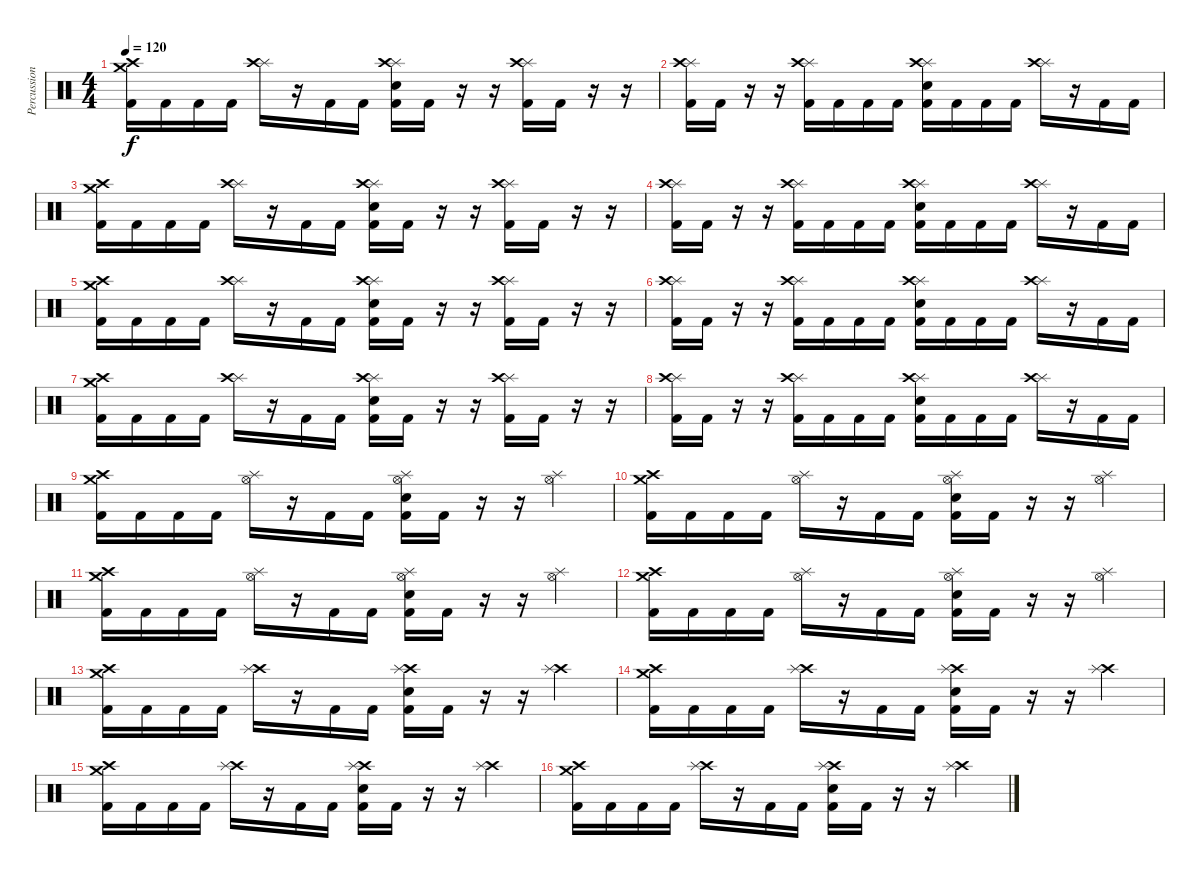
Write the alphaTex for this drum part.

\track ("Percussion" "Percussion") {instrument percussion}
\staff {score}
\articulation defaults
\ts (4 4)
\tempo 120
\clef neutral
\ks c
("Crash medium (hit)" "Crash high (hit)" "Kick (hit) 2").16{dy f} "Kick (hit) 2".16 "Kick (hit) 2".16 "Kick (hit) 2".16 ("Splash (hit)" "Crash high (hit)").16 r.16 "Kick (hit) 2".16 "Kick (hit) 2".16 ("Splash (hit)" "Crash high (hit)" "Snare (hit) 2" "Kick (hit) 2").16 "Kick (hit) 2".16 r.16 r.16 ("Splash (hit)" "Crash high (hit)" "Kick (hit) 2").16 "Kick (hit) 2".16 r.16 r.16 |
("Splash (hit)" "Crash high (hit)" "Kick (hit) 2").16 "Kick (hit) 2".16 r.16 r.16 ("Splash (hit)" "Crash high (hit)" "Kick (hit) 2").16 "Kick (hit) 2".16 "Kick (hit) 2".16 "Kick (hit) 2".16 ("Splash (hit)" "Crash high (hit)" "Snare (hit) 2" "Kick (hit) 2").16 "Kick (hit) 2".16 "Kick (hit) 2".16 "Kick (hit) 2".16 ("Splash (hit)" "Crash high (hit)").16 r.16 "Kick (hit) 2".16 "Kick (hit) 2".16 |
("Crash medium (hit)" "Crash high (hit)" "Kick (hit) 2").16 "Kick (hit) 2".16 "Kick (hit) 2".16 "Kick (hit) 2".16 ("Splash (hit)" "Crash high (hit)").16 r.16 "Kick (hit) 2".16 "Kick (hit) 2".16 ("Splash (hit)" "Crash high (hit)" "Snare (hit) 2" "Kick (hit) 2").16 "Kick (hit) 2".16 r.16 r.16 ("Splash (hit)" "Crash high (hit)" "Kick (hit) 2").16 "Kick (hit) 2".16 r.16 r.16 |
("Splash (hit)" "Crash high (hit)" "Kick (hit) 2").16 "Kick (hit) 2".16 r.16 r.16 ("Splash (hit)" "Crash high (hit)" "Kick (hit) 2").16 "Kick (hit) 2".16 "Kick (hit) 2".16 "Kick (hit) 2".16 ("Splash (hit)" "Crash high (hit)" "Snare (hit) 2" "Kick (hit) 2").16 "Kick (hit) 2".16 "Kick (hit) 2".16 "Kick (hit) 2".16 ("Splash (hit)" "Crash high (hit)").16 r.16 "Kick (hit) 2".16 "Kick (hit) 2".16 |
("Crash medium (hit)" "Crash high (hit)" "Kick (hit) 2").16 "Kick (hit) 2".16 "Kick (hit) 2".16 "Kick (hit) 2".16 ("Splash (hit)" "Crash high (hit)").16 r.16 "Kick (hit) 2".16 "Kick (hit) 2".16 ("Splash (hit)" "Crash high (hit)" "Snare (hit) 2" "Kick (hit) 2").16 "Kick (hit) 2".16 r.16 r.16 ("Splash (hit)" "Crash high (hit)" "Kick (hit) 2").16 "Kick (hit) 2".16 r.16 r.16 |
("Splash (hit)" "Crash high (hit)" "Kick (hit) 2").16 "Kick (hit) 2".16 r.16 r.16 ("Splash (hit)" "Crash high (hit)" "Kick (hit) 2").16 "Kick (hit) 2".16 "Kick (hit) 2".16 "Kick (hit) 2".16 ("Splash (hit)" "Crash high (hit)" "Snare (hit) 2" "Kick (hit) 2").16 "Kick (hit) 2".16 "Kick (hit) 2".16 "Kick (hit) 2".16 ("Splash (hit)" "Crash high (hit)").16 r.16 "Kick (hit) 2".16 "Kick (hit) 2".16 |
("Crash medium (hit)" "Crash high (hit)" "Kick (hit) 2").16 "Kick (hit) 2".16 "Kick (hit) 2".16 "Kick (hit) 2".16 ("Splash (hit)" "Crash high (hit)").16 r.16 "Kick (hit) 2".16 "Kick (hit) 2".16 ("Splash (hit)" "Crash high (hit)" "Snare (hit) 2" "Kick (hit) 2").16 "Kick (hit) 2".16 r.16 r.16 ("Splash (hit)" "Crash high (hit)" "Kick (hit) 2").16 "Kick (hit) 2".16 r.16 r.16 |
("Splash (hit)" "Crash high (hit)" "Kick (hit) 2").16 "Kick (hit) 2".16 r.16 r.16 ("Splash (hit)" "Crash high (hit)" "Kick (hit) 2").16 "Kick (hit) 2".16 "Kick (hit) 2".16 "Kick (hit) 2".16 ("Splash (hit)" "Crash high (hit)" "Snare (hit) 2" "Kick (hit) 2").16 "Kick (hit) 2".16 "Kick (hit) 2".16 "Kick (hit) 2".16 ("Splash (hit)" "Crash high (hit)").16 r.16 "Kick (hit) 2".16 "Kick (hit) 2".16 |
("Crash medium (hit)" "Crash high (hit)" "Kick (hit) 2").16 "Kick (hit) 2".16 "Kick (hit) 2".16 "Kick (hit) 2".16 ("Hi-Hat (open)" "Splash (hit)").16 r.16 "Kick (hit) 2".16 "Kick (hit) 2".16 ("Hi-Hat (open)" "Splash (hit)" "Snare (hit) 2" "Kick (hit) 2").16 "Kick (hit) 2".16 r.16 r.16 ("Hi-Hat (open)" "Splash (hit)").4 |
("Crash medium (hit)" "Crash high (hit)" "Kick (hit) 2").16 "Kick (hit) 2".16 "Kick (hit) 2".16 "Kick (hit) 2".16 ("Hi-Hat (open)" "Splash (hit)").16 r.16 "Kick (hit) 2".16 "Kick (hit) 2".16 ("Hi-Hat (open)" "Splash (hit)" "Snare (hit) 2" "Kick (hit) 2").16 "Kick (hit) 2".16 r.16 r.16 ("Hi-Hat (open)" "Splash (hit)").4 |
("Crash medium (hit)" "Crash high (hit)" "Kick (hit) 2").16 "Kick (hit) 2".16 "Kick (hit) 2".16 "Kick (hit) 2".16 ("Hi-Hat (open)" "Splash (hit)").16 r.16 "Kick (hit) 2".16 "Kick (hit) 2".16 ("Hi-Hat (open)" "Splash (hit)" "Snare (hit) 2" "Kick (hit) 2").16 "Kick (hit) 2".16 r.16 r.16 ("Hi-Hat (open)" "Splash (hit)").4 |
("Crash medium (hit)" "Crash high (hit)" "Kick (hit) 2").16 "Kick (hit) 2".16 "Kick (hit) 2".16 "Kick (hit) 2".16 ("Hi-Hat (open)" "Splash (hit)").16 r.16 "Kick (hit) 2".16 "Kick (hit) 2".16 ("Hi-Hat (open)" "Splash (hit)" "Snare (hit) 2" "Kick (hit) 2").16 "Kick (hit) 2".16 r.16 r.16 ("Hi-Hat (open)" "Splash (hit)").4 |
("Crash medium (hit)" "Crash high (hit)" "Kick (hit) 2").16 "Kick (hit) 2".16 "Kick (hit) 2".16 "Kick (hit) 2".16 ("Crash high (hit)" "Splash (hit)").16 r.16 "Kick (hit) 2".16 "Kick (hit) 2".16 ("Crash high (hit)" "Splash (hit)" "Snare (hit) 2" "Kick (hit) 2").16 "Kick (hit) 2".16 r.16 r.16 ("Crash high (hit)" "Splash (hit)").4 |
("Crash medium (hit)" "Crash high (hit)" "Kick (hit) 2").16 "Kick (hit) 2".16 "Kick (hit) 2".16 "Kick (hit) 2".16 ("Crash high (hit)" "Splash (hit)").16 r.16 "Kick (hit) 2".16 "Kick (hit) 2".16 ("Crash high (hit)" "Splash (hit)" "Snare (hit) 2" "Kick (hit) 2").16 "Kick (hit) 2".16 r.16 r.16 ("Crash high (hit)" "Splash (hit)").4 |
("Crash medium (hit)" "Crash high (hit)" "Kick (hit) 2").16 "Kick (hit) 2".16 "Kick (hit) 2".16 "Kick (hit) 2".16 ("Crash high (hit)" "Splash (hit)").16 r.16 "Kick (hit) 2".16 "Kick (hit) 2".16 ("Crash high (hit)" "Splash (hit)" "Snare (hit) 2" "Kick (hit) 2").16 "Kick (hit) 2".16 r.16 r.16 ("Crash high (hit)" "Splash (hit)").4 |
("Crash medium (hit)" "Crash high (hit)" "Kick (hit) 2").16 "Kick (hit) 2".16 "Kick (hit) 2".16 "Kick (hit) 2".16 ("Crash high (hit)" "Splash (hit)").16 r.16 "Kick (hit) 2".16 "Kick (hit) 2".16 ("Crash high (hit)" "Splash (hit)" "Snare (hit) 2" "Kick (hit) 2").16 "Kick (hit) 2".16 r.16 r.16 ("Crash high (hit)" "Splash (hit)").4
